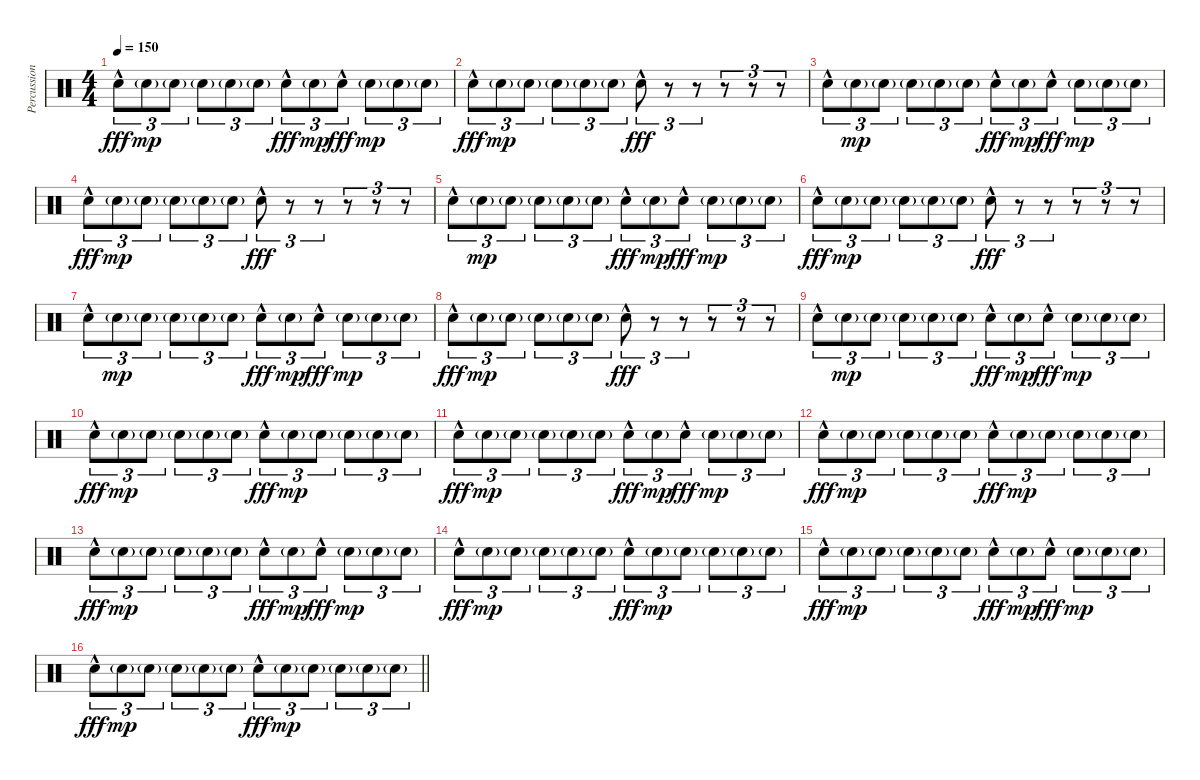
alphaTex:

\track ("Percussion" "Percussion") {instrument percussion}
\staff {score}
\articulation defaults
\ts (4 4)
\tempo 150
\clef neutral
\ks c "Electric Snare (hit)"{hac}.8{tu (3 2) dy fff} "Electric Snare (hit)"{g}.8{tu (3 2) dy mp} "Electric Snare (hit)"{g}.8{tu (3 2)} "Electric Snare (hit)"{g}.8{tu (3 2)} "Electric Snare (hit)"{g}.8{tu (3 2)} "Electric Snare (hit)"{g}.8{tu (3 2)} "Electric Snare (hit)"{hac}.8{tu (3 2) dy fff} "Electric Snare (hit)"{g}.8{tu (3 2) dy mp} "Electric Snare (hit)"{hac}.8{tu (3 2) dy fff} "Electric Snare (hit)"{g}.8{tu (3 2) dy mp} "Electric Snare (hit)"{g}.8{tu (3 2)} "Electric Snare (hit)"{g}.8{tu (3 2)}
|
"Electric Snare (hit)"{hac}.8{tu (3 2) dy fff} "Electric Snare (hit)"{g}.8{tu (3 2) dy mp} "Electric Snare (hit)"{g}.8{tu (3 2)} "Electric Snare (hit)"{g}.8{tu (3 2)} "Electric Snare (hit)"{g}.8{tu (3 2)} "Electric Snare (hit)"{g}.8{tu (3 2)} "Electric Snare (hit)"{hac}.8{tu (3 2) dy fff} r.8{tu (3 2)} r.8{tu (3 2)} r.8{tu (3 2)} r.8{tu (3 2)} r.8{tu (3 2)} |
"Electric Snare (hit)"{hac}.8{tu (3 2)} "Electric Snare (hit)"{g}.8{tu (3 2) dy mp} "Electric Snare (hit)"{g}.8{tu (3 2)} "Electric Snare (hit)"{g}.8{tu (3 2)} "Electric Snare (hit)"{g}.8{tu (3 2)} "Electric Snare (hit)"{g}.8{tu (3 2)} "Electric Snare (hit)"{hac}.8{tu (3 2) dy fff} "Electric Snare (hit)"{g}.8{tu (3 2) dy mp} "Electric Snare (hit)"{hac}.8{tu (3 2) dy fff} "Electric Snare (hit)"{g}.8{tu (3 2) dy mp} "Electric Snare (hit)"{g}.8{tu (3 2)} "Electric Snare (hit)"{g}.8{tu (3 2)} |
"Electric Snare (hit)"{hac}.8{tu (3 2) dy fff} "Electric Snare (hit)"{g}.8{tu (3 2) dy mp} "Electric Snare (hit)"{g}.8{tu (3 2)} "Electric Snare (hit)"{g}.8{tu (3 2)} "Electric Snare (hit)"{g}.8{tu (3 2)} "Electric Snare (hit)"{g}.8{tu (3 2)} "Electric Snare (hit)"{hac}.8{tu (3 2) dy fff} r.8{tu (3 2)} r.8{tu (3 2)} r.8{tu (3 2)} r.8{tu (3 2)} r.8{tu (3 2)} |
"Electric Snare (hit)"{hac}.8{tu (3 2)} "Electric Snare (hit)"{g}.8{tu (3 2) dy mp} "Electric Snare (hit)"{g}.8{tu (3 2)} "Electric Snare (hit)"{g}.8{tu (3 2)} "Electric Snare (hit)"{g}.8{tu (3 2)} "Electric Snare (hit)"{g}.8{tu (3 2)} "Electric Snare (hit)"{hac}.8{tu (3 2) dy fff} "Electric Snare (hit)"{g}.8{tu (3 2) dy mp} "Electric Snare (hit)"{hac}.8{tu (3 2) dy fff} "Electric Snare (hit)"{g}.8{tu (3 2) dy mp} "Electric Snare (hit)"{g}.8{tu (3 2)} "Electric Snare (hit)"{g}.8{tu (3 2)} |
"Electric Snare (hit)"{hac}.8{tu (3 2) dy fff} "Electric Snare (hit)"{g}.8{tu (3 2) dy mp} "Electric Snare (hit)"{g}.8{tu (3 2)} "Electric Snare (hit)"{g}.8{tu (3 2)} "Electric Snare (hit)"{g}.8{tu (3 2)} "Electric Snare (hit)"{g}.8{tu (3 2)} "Electric Snare (hit)"{hac}.8{tu (3 2) dy fff} r.8{tu (3 2)} r.8{tu (3 2)} r.8{tu (3 2)} r.8{tu (3 2)} r.8{tu (3 2)} |
"Electric Snare (hit)"{hac}.8{tu (3 2)} "Electric Snare (hit)"{g}.8{tu (3 2) dy mp} "Electric Snare (hit)"{g}.8{tu (3 2)} "Electric Snare (hit)"{g}.8{tu (3 2)} "Electric Snare (hit)"{g}.8{tu (3 2)} "Electric Snare (hit)"{g}.8{tu (3 2)} "Electric Snare (hit)"{hac}.8{tu (3 2) dy fff} "Electric Snare (hit)"{g}.8{tu (3 2) dy mp} "Electric Snare (hit)"{hac}.8{tu (3 2) dy fff} "Electric Snare (hit)"{g}.8{tu (3 2) dy mp} "Electric Snare (hit)"{g}.8{tu (3 2)} "Electric Snare (hit)"{g}.8{tu (3 2)} |
"Electric Snare (hit)"{hac}.8{tu (3 2) dy fff} "Electric Snare (hit)"{g}.8{tu (3 2) dy mp} "Electric Snare (hit)"{g}.8{tu (3 2)} "Electric Snare (hit)"{g}.8{tu (3 2)} "Electric Snare (hit)"{g}.8{tu (3 2)} "Electric Snare (hit)"{g}.8{tu (3 2)} "Electric Snare (hit)"{hac}.8{tu (3 2) dy fff} r.8{tu (3 2)} r.8{tu (3 2)} r.8{tu (3 2)} r.8{tu (3 2)} r.8{tu (3 2)} |
"Electric Snare (hit)"{hac}.8{tu (3 2)} "Electric Snare (hit)"{g}.8{tu (3 2) dy mp} "Electric Snare (hit)"{g}.8{tu (3 2)} "Electric Snare (hit)"{g}.8{tu (3 2)} "Electric Snare (hit)"{g}.8{tu (3 2)} "Electric Snare (hit)"{g}.8{tu (3 2)} "Electric Snare (hit)"{hac}.8{tu (3 2) dy fff} "Electric Snare (hit)"{g}.8{tu (3 2) dy mp} "Electric Snare (hit)"{hac}.8{tu (3 2) dy fff} "Electric Snare (hit)"{g}.8{tu (3 2) dy mp} "Electric Snare (hit)"{g}.8{tu (3 2)} "Electric Snare (hit)"{g}.8{tu (3 2)} |
"Electric Snare (hit)"{hac}.8{tu (3 2) dy fff} "Electric Snare (hit)"{g}.8{tu (3 2) dy mp} "Electric Snare (hit)"{g}.8{tu (3 2)} "Electric Snare (hit)"{g}.8{tu (3 2)} "Electric Snare (hit)"{g}.8{tu (3 2)} "Electric Snare (hit)"{g}.8{tu (3 2)} "Electric Snare (hit)"{hac}.8{tu (3 2) dy fff} "Electric Snare (hit)"{g}.8{tu (3 2) dy mp} "Electric Snare (hit)"{g}.8{tu (3 2)} "Electric Snare (hit)"{g}.8{tu (3 2)} "Electric Snare (hit)"{g}.8{tu (3 2)} "Electric Snare (hit)"{g}.8{tu (3 2)} |
"Electric Snare (hit)"{hac}.8{tu (3 2) dy fff} "Electric Snare (hit)"{g}.8{tu (3 2) dy mp} "Electric Snare (hit)"{g}.8{tu (3 2)} "Electric Snare (hit)"{g}.8{tu (3 2)} "Electric Snare (hit)"{g}.8{tu (3 2)} "Electric Snare (hit)"{g}.8{tu (3 2)} "Electric Snare (hit)"{hac}.8{tu (3 2) dy fff} "Electric Snare (hit)"{g}.8{tu (3 2) dy mp} "Electric Snare (hit)"{hac}.8{tu (3 2) dy fff} "Electric Snare (hit)"{g}.8{tu (3 2) dy mp} "Electric Snare (hit)"{g}.8{tu (3 2)} "Electric Snare (hit)"{g}.8{tu (3 2)} |
"Electric Snare (hit)"{hac}.8{tu (3 2) dy fff} "Electric Snare (hit)"{g}.8{tu (3 2) dy mp} "Electric Snare (hit)"{g}.8{tu (3 2)} "Electric Snare (hit)"{g}.8{tu (3 2)} "Electric Snare (hit)"{g}.8{tu (3 2)} "Electric Snare (hit)"{g}.8{tu (3 2)} "Electric Snare (hit)"{hac}.8{tu (3 2) dy fff} "Electric Snare (hit)"{g}.8{tu (3 2) dy mp} "Electric Snare (hit)"{g}.8{tu (3 2)} "Electric Snare (hit)"{g}.8{tu (3 2)} "Electric Snare (hit)"{g}.8{tu (3 2)} "Electric Snare (hit)"{g}.8{tu (3 2)} |
"Electric Snare (hit)"{hac}.8{tu (3 2) dy fff} "Electric Snare (hit)"{g}.8{tu (3 2) dy mp} "Electric Snare (hit)"{g}.8{tu (3 2)} "Electric Snare (hit)"{g}.8{tu (3 2)} "Electric Snare (hit)"{g}.8{tu (3 2)} "Electric Snare (hit)"{g}.8{tu (3 2)} "Electric Snare (hit)"{hac}.8{tu (3 2) dy fff} "Electric Snare (hit)"{g}.8{tu (3 2) dy mp} "Electric Snare (hit)"{hac}.8{tu (3 2) dy fff} "Electric Snare (hit)"{g}.8{tu (3 2) dy mp} "Electric Snare (hit)"{g}.8{tu (3 2)} "Electric Snare (hit)"{g}.8{tu (3 2)} |
"Electric Snare (hit)"{hac}.8{tu (3 2) dy fff} "Electric Snare (hit)"{g}.8{tu (3 2) dy mp} "Electric Snare (hit)"{g}.8{tu (3 2)} "Electric Snare (hit)"{g}.8{tu (3 2)} "Electric Snare (hit)"{g}.8{tu (3 2)} "Electric Snare (hit)"{g}.8{tu (3 2)} "Electric Snare (hit)"{hac}.8{tu (3 2) dy fff} "Electric Snare (hit)"{g}.8{tu (3 2) dy mp} "Electric Snare (hit)"{g}.8{tu (3 2)} "Electric Snare (hit)"{g}.8{tu (3 2)} "Electric Snare (hit)"{g}.8{tu (3 2)} "Electric Snare (hit)"{g}.8{tu (3 2)} |
"Electric Snare (hit)"{hac}.8{tu (3 2) dy fff} "Electric Snare (hit)"{g}.8{tu (3 2) dy mp} "Electric Snare (hit)"{g}.8{tu (3 2)} "Electric Snare (hit)"{g}.8{tu (3 2)} "Electric Snare (hit)"{g}.8{tu (3 2)} "Electric Snare (hit)"{g}.8{tu (3 2)} "Electric Snare (hit)"{hac}.8{tu (3 2) dy fff} "Electric Snare (hit)"{g}.8{tu (3 2) dy mp} "Electric Snare (hit)"{hac}.8{tu (3 2) dy fff} "Electric Snare (hit)"{g}.8{tu (3 2) dy mp} "Electric Snare (hit)"{g}.8{tu (3 2)} "Electric Snare (hit)"{g}.8{tu (3 2)} |
\barLineRight lightlight "Electric Snare (hit)"{hac}.8{tu (3 2) dy fff} "Electric Snare (hit)"{g}.8{tu (3 2) dy mp} "Electric Snare (hit)"{g}.8{tu (3 2)} "Electric Snare (hit)"{g}.8{tu (3 2)} "Electric Snare (hit)"{g}.8{tu (3 2)} "Electric Snare (hit)"{g}.8{tu (3 2)} "Electric Snare (hit)"{hac}.8{tu (3 2) dy fff} "Electric Snare (hit)"{g}.8{tu (3 2) dy mp} "Electric Snare (hit)"{g}.8{tu (3 2)} "Electric Snare (hit)"{g}.8{tu (3 2)} "Electric Snare (hit)"{g}.8{tu (3 2)} "Electric Snare (hit)"{g}.8{tu (3 2)}
